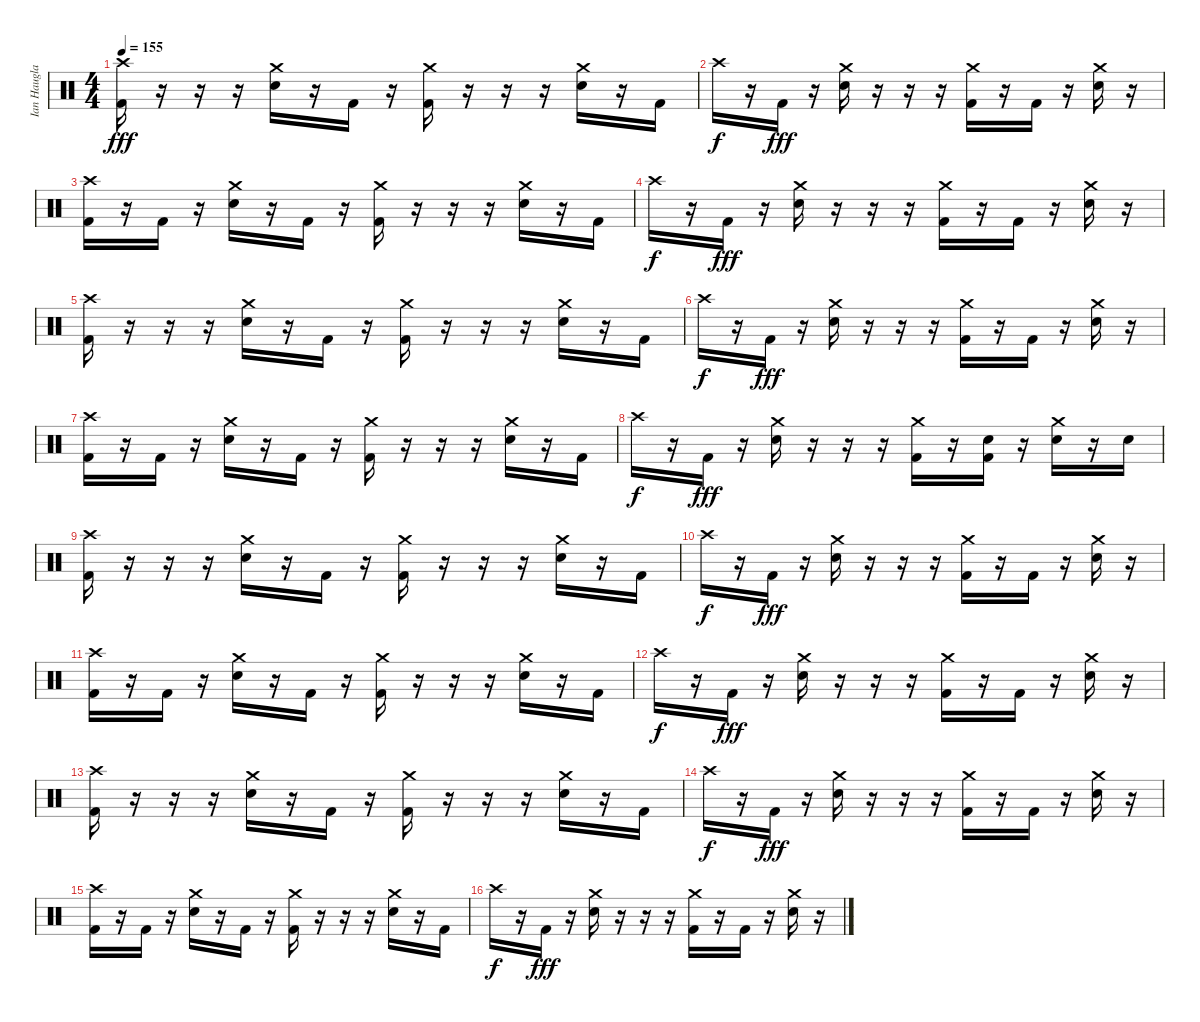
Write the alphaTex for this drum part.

\track ("Ian Haugland" "Ian Haugla") {instrument percussion}
\staff {score}
\articulation defaults
\ts (4 4)
\tempo 155
\clef neutral
\ks c
("Crash high (hit)" "Kick (hit) 2").16{dy fff} r.16 r.16 r.16 ("Crash medium (hit)" "Electric Snare (hit)").16 r.16 "Kick (hit) 2".16 r.16 ("Crash medium (hit)" "Kick (hit) 2").16 r.16 r.16 r.16 ("Crash medium (hit)" "Electric Snare (hit)").16 r.16 "Kick (hit) 2".16 |
"Crash high (hit)".16{dy f} r.16 "Kick (hit) 2".16{dy fff} r.16 ("Crash medium (hit)" "Electric Snare (hit)").16 r.16 r.16 r.16 ("Crash medium (hit)" "Kick (hit) 2").16 r.16 "Kick (hit) 2".16 r.16 ("Crash medium (hit)" "Electric Snare (hit)").16 r.16 |
("Crash high (hit)" "Kick (hit) 2").16 r.16 "Kick (hit) 2".16 r.16 ("Crash medium (hit)" "Electric Snare (hit)").16 r.16 "Kick (hit) 2".16 r.16 ("Crash medium (hit)" "Kick (hit) 2").16 r.16 r.16 r.16 ("Crash medium (hit)" "Electric Snare (hit)").16 r.16 "Kick (hit) 2".16 |
"Crash high (hit)".16{dy f} r.16 "Kick (hit) 2".16{dy fff} r.16 ("Crash medium (hit)" "Electric Snare (hit)").16 r.16 r.16 r.16 ("Crash medium (hit)" "Kick (hit) 2").16 r.16 "Kick (hit) 2".16 r.16 ("Crash medium (hit)" "Electric Snare (hit)").16 r.16 |
("Crash high (hit)" "Kick (hit) 2").16 r.16 r.16 r.16 ("Crash medium (hit)" "Electric Snare (hit)").16 r.16 "Kick (hit) 2".16 r.16 ("Crash medium (hit)" "Kick (hit) 2").16 r.16 r.16 r.16 ("Crash medium (hit)" "Electric Snare (hit)").16 r.16 "Kick (hit) 2".16 |
"Crash high (hit)".16{dy f} r.16 "Kick (hit) 2".16{dy fff} r.16 ("Crash medium (hit)" "Electric Snare (hit)").16 r.16 r.16 r.16 ("Crash medium (hit)" "Kick (hit) 2").16 r.16 "Kick (hit) 2".16 r.16 ("Crash medium (hit)" "Electric Snare (hit)").16 r.16 |
("Crash high (hit)" "Kick (hit) 2").16 r.16 "Kick (hit) 2".16 r.16 ("Crash medium (hit)" "Electric Snare (hit)").16 r.16 "Kick (hit) 2".16 r.16 ("Crash medium (hit)" "Kick (hit) 2").16 r.16 r.16 r.16 ("Crash medium (hit)" "Electric Snare (hit)").16 r.16 "Kick (hit) 2".16 |
"Crash high (hit)".16{dy f} r.16 "Kick (hit) 2".16{dy fff} r.16 ("Crash medium (hit)" "Electric Snare (hit)").16 r.16 r.16 r.16 ("Crash medium (hit)" "Kick (hit) 2").16 r.16 ("Electric Snare (hit)" "Kick (hit) 2").16 r.16 ("Crash medium (hit)" "Electric Snare (hit)").16 r.16 "Electric Snare (hit)".16 |
("Crash high (hit)" "Kick (hit) 2").16 r.16 r.16 r.16 ("Crash medium (hit)" "Electric Snare (hit)").16 r.16 "Kick (hit) 2".16 r.16 ("Crash medium (hit)" "Kick (hit) 2").16 r.16 r.16 r.16 ("Crash medium (hit)" "Electric Snare (hit)").16 r.16 "Kick (hit) 2".16 |
"Crash high (hit)".16{dy f} r.16 "Kick (hit) 2".16{dy fff} r.16 ("Crash medium (hit)" "Electric Snare (hit)").16 r.16 r.16 r.16 ("Crash medium (hit)" "Kick (hit) 2").16 r.16 "Kick (hit) 2".16 r.16 ("Crash medium (hit)" "Electric Snare (hit)").16 r.16 |
("Crash high (hit)" "Kick (hit) 2").16 r.16 "Kick (hit) 2".16 r.16 ("Crash medium (hit)" "Electric Snare (hit)").16 r.16 "Kick (hit) 2".16 r.16 ("Crash medium (hit)" "Kick (hit) 2").16 r.16 r.16 r.16 ("Crash medium (hit)" "Electric Snare (hit)").16 r.16 "Kick (hit) 2".16 |
"Crash high (hit)".16{dy f} r.16 "Kick (hit) 2".16{dy fff} r.16 ("Crash medium (hit)" "Electric Snare (hit)").16 r.16 r.16 r.16 ("Crash medium (hit)" "Kick (hit) 2").16 r.16 "Kick (hit) 2".16 r.16 ("Crash medium (hit)" "Electric Snare (hit)").16 r.16 |
("Crash high (hit)" "Kick (hit) 2").16 r.16 r.16 r.16 ("Crash medium (hit)" "Electric Snare (hit)").16 r.16 "Kick (hit) 2".16 r.16 ("Crash medium (hit)" "Kick (hit) 2").16 r.16 r.16 r.16 ("Crash medium (hit)" "Electric Snare (hit)").16 r.16 "Kick (hit) 2".16 |
"Crash high (hit)".16{dy f} r.16 "Kick (hit) 2".16{dy fff} r.16 ("Crash medium (hit)" "Electric Snare (hit)").16 r.16 r.16 r.16 ("Crash medium (hit)" "Kick (hit) 2").16 r.16 "Kick (hit) 2".16 r.16 ("Crash medium (hit)" "Electric Snare (hit)").16 r.16 |
("Crash high (hit)" "Kick (hit) 2").16 r.16 "Kick (hit) 2".16 r.16 ("Crash medium (hit)" "Electric Snare (hit)").16 r.16 "Kick (hit) 2".16 r.16 ("Crash medium (hit)" "Kick (hit) 2").16 r.16 r.16 r.16 ("Crash medium (hit)" "Electric Snare (hit)").16 r.16 "Kick (hit) 2".16 |
"Crash high (hit)".16{dy f} r.16 "Kick (hit) 2".16{dy fff} r.16 ("Crash medium (hit)" "Electric Snare (hit)").16 r.16 r.16 r.16 ("Crash medium (hit)" "Kick (hit) 2").16 r.16 "Kick (hit) 2".16 r.16 ("Crash medium (hit)" "Electric Snare (hit)").16 r.16
